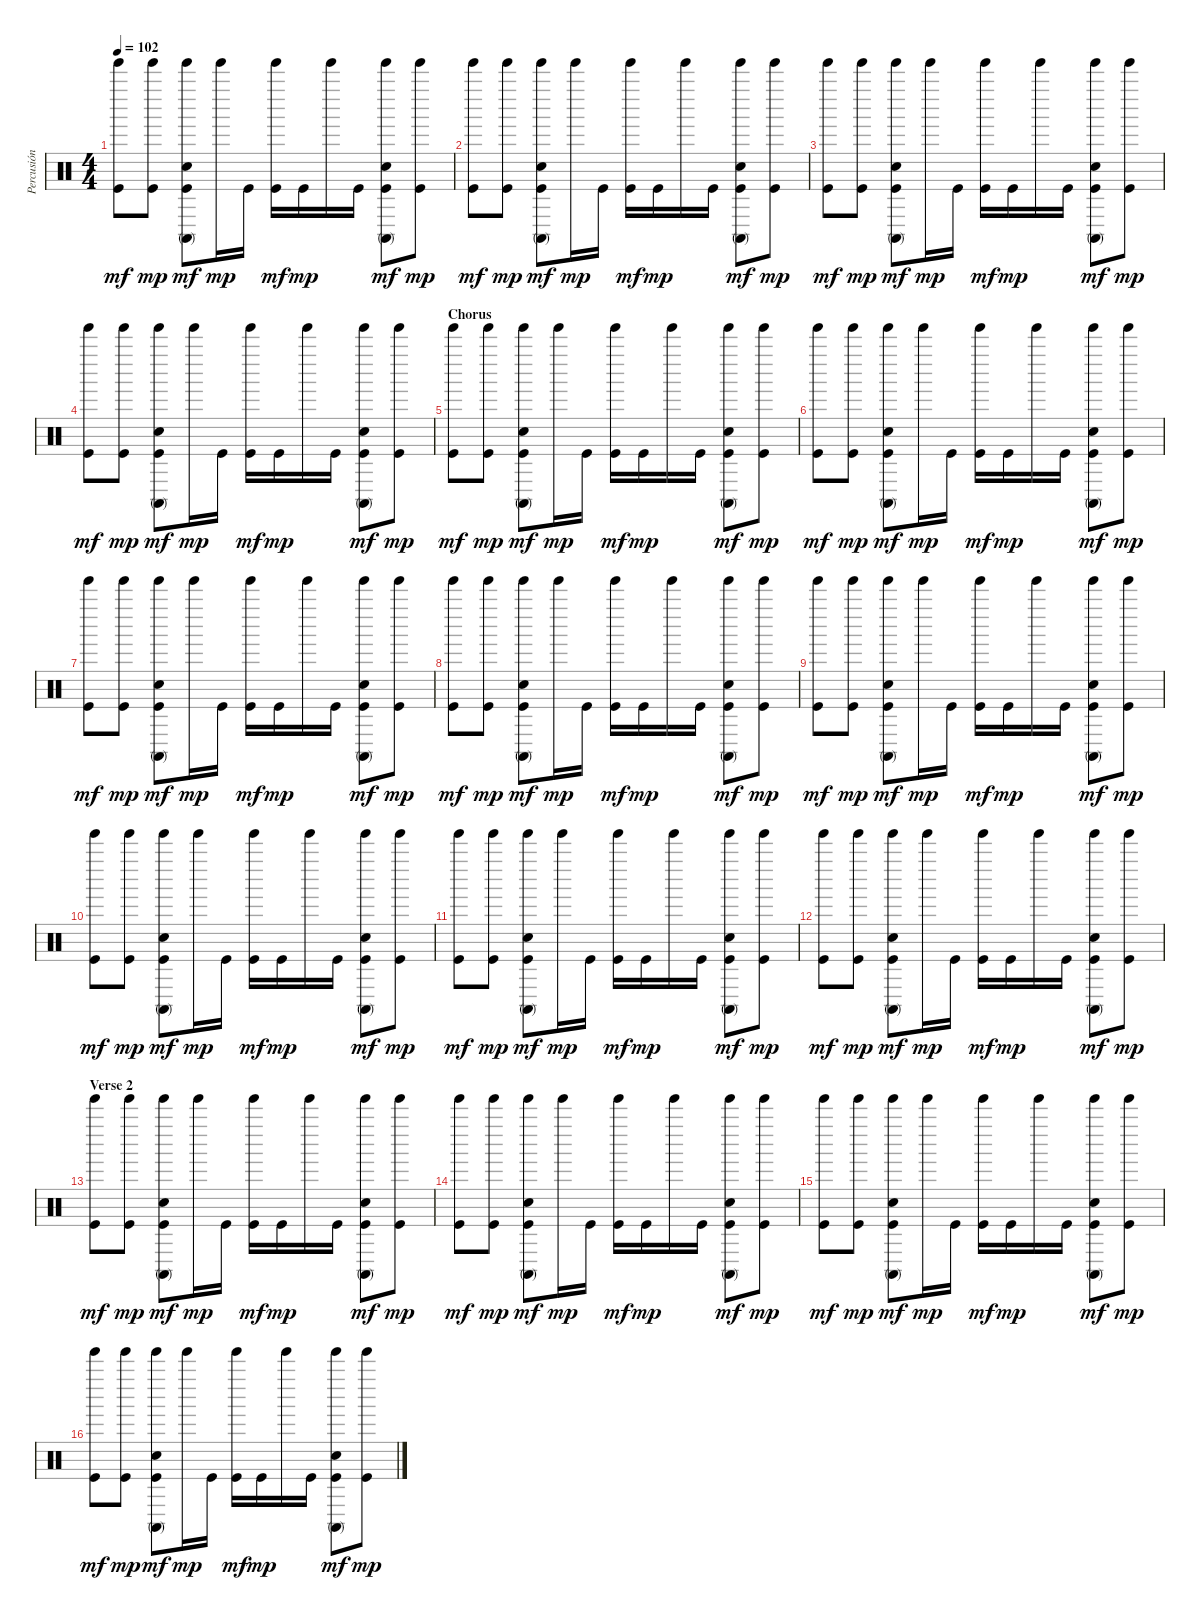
\track ("Percusión" "Percusión") {instrument percussion}
\staff {score}
\articulation defaults
\ts (4 4)
\tempo 102
\clef neutral
\ks c
("Kick (hit)" "Tinkle Bell (hit)").8{dy mf} ("Kick (hit)" "Tinkle Bell (hit)").8{dy mp} ("Kick (hit)" "Snare (hit) 2" "Conga high (mute)" "Tinkle Bell (hit)").8{dy mf} "Tinkle Bell (hit)".16{dy mp} "Kick (hit)".16 ("Kick (hit)" "Tinkle Bell (hit)").16{dy mf} "Kick (hit)".16{dy mp} "Tinkle Bell (hit)".16 "Kick (hit)".16 ("Kick (hit)" "Snare (hit) 2" "Conga high (mute)" "Tinkle Bell (hit)").8{dy mf} ("Kick (hit)" "Tinkle Bell (hit)").8{dy mp} |
("Kick (hit)" "Tinkle Bell (hit)").8{dy mf} ("Kick (hit)" "Tinkle Bell (hit)").8{dy mp} ("Kick (hit)" "Snare (hit) 2" "Conga high (mute)" "Tinkle Bell (hit)").8{dy mf} "Tinkle Bell (hit)".16{dy mp} "Kick (hit)".16 ("Kick (hit)" "Tinkle Bell (hit)").16{dy mf} "Kick (hit)".16{dy mp} "Tinkle Bell (hit)".16 "Kick (hit)".16 ("Kick (hit)" "Snare (hit) 2" "Conga high (mute)" "Tinkle Bell (hit)").8{dy mf} ("Kick (hit)" "Tinkle Bell (hit)").8{dy mp} |
("Kick (hit)" "Tinkle Bell (hit)").8{dy mf} ("Kick (hit)" "Tinkle Bell (hit)").8{dy mp} ("Kick (hit)" "Snare (hit) 2" "Conga high (mute)" "Tinkle Bell (hit)").8{dy mf} "Tinkle Bell (hit)".16{dy mp} "Kick (hit)".16 ("Kick (hit)" "Tinkle Bell (hit)").16{dy mf} "Kick (hit)".16{dy mp} "Tinkle Bell (hit)".16 "Kick (hit)".16 ("Kick (hit)" "Snare (hit) 2" "Conga high (mute)" "Tinkle Bell (hit)").8{dy mf} ("Kick (hit)" "Tinkle Bell (hit)").8{dy mp} |
("Kick (hit)" "Tinkle Bell (hit)").8{dy mf} ("Kick (hit)" "Tinkle Bell (hit)").8{dy mp} ("Kick (hit)" "Snare (hit) 2" "Conga high (mute)" "Tinkle Bell (hit)").8{dy mf} "Tinkle Bell (hit)".16{dy mp} "Kick (hit)".16 ("Kick (hit)" "Tinkle Bell (hit)").16{dy mf} "Kick (hit)".16{dy mp} "Tinkle Bell (hit)".16 "Kick (hit)".16 ("Kick (hit)" "Snare (hit) 2" "Conga high (mute)" "Tinkle Bell (hit)").8{dy mf} ("Kick (hit)" "Tinkle Bell (hit)").8{dy mp} |
\section ("" "Chorus")
("Kick (hit)" "Tinkle Bell (hit)").8{dy mf} ("Kick (hit)" "Tinkle Bell (hit)").8{dy mp} ("Kick (hit)" "Snare (hit) 2" "Conga high (mute)" "Tinkle Bell (hit)").8{dy mf} "Tinkle Bell (hit)".16{dy mp} "Kick (hit)".16 ("Kick (hit)" "Tinkle Bell (hit)").16{dy mf} "Kick (hit)".16{dy mp} "Tinkle Bell (hit)".16 "Kick (hit)".16 ("Kick (hit)" "Snare (hit) 2" "Conga high (mute)" "Tinkle Bell (hit)").8{dy mf} ("Kick (hit)" "Tinkle Bell (hit)").8{dy mp} |
("Kick (hit)" "Tinkle Bell (hit)").8{dy mf} ("Kick (hit)" "Tinkle Bell (hit)").8{dy mp} ("Kick (hit)" "Snare (hit) 2" "Conga high (mute)" "Tinkle Bell (hit)").8{dy mf} "Tinkle Bell (hit)".16{dy mp} "Kick (hit)".16 ("Kick (hit)" "Tinkle Bell (hit)").16{dy mf} "Kick (hit)".16{dy mp} "Tinkle Bell (hit)".16 "Kick (hit)".16 ("Kick (hit)" "Snare (hit) 2" "Conga high (mute)" "Tinkle Bell (hit)").8{dy mf} ("Kick (hit)" "Tinkle Bell (hit)").8{dy mp} |
("Kick (hit)" "Tinkle Bell (hit)").8{dy mf} ("Kick (hit)" "Tinkle Bell (hit)").8{dy mp} ("Kick (hit)" "Snare (hit) 2" "Conga high (mute)" "Tinkle Bell (hit)").8{dy mf} "Tinkle Bell (hit)".16{dy mp} "Kick (hit)".16 ("Kick (hit)" "Tinkle Bell (hit)").16{dy mf} "Kick (hit)".16{dy mp} "Tinkle Bell (hit)".16 "Kick (hit)".16 ("Kick (hit)" "Snare (hit) 2" "Conga high (mute)" "Tinkle Bell (hit)").8{dy mf} ("Kick (hit)" "Tinkle Bell (hit)").8{dy mp} |
("Kick (hit)" "Tinkle Bell (hit)").8{dy mf} ("Kick (hit)" "Tinkle Bell (hit)").8{dy mp} ("Kick (hit)" "Snare (hit) 2" "Conga high (mute)" "Tinkle Bell (hit)").8{dy mf} "Tinkle Bell (hit)".16{dy mp} "Kick (hit)".16 ("Kick (hit)" "Tinkle Bell (hit)").16{dy mf} "Kick (hit)".16{dy mp} "Tinkle Bell (hit)".16 "Kick (hit)".16 ("Kick (hit)" "Snare (hit) 2" "Conga high (mute)" "Tinkle Bell (hit)").8{dy mf} ("Kick (hit)" "Tinkle Bell (hit)").8{dy mp} |
("Kick (hit)" "Tinkle Bell (hit)").8{dy mf} ("Kick (hit)" "Tinkle Bell (hit)").8{dy mp} ("Kick (hit)" "Snare (hit) 2" "Conga high (mute)" "Tinkle Bell (hit)").8{dy mf} "Tinkle Bell (hit)".16{dy mp} "Kick (hit)".16 ("Kick (hit)" "Tinkle Bell (hit)").16{dy mf} "Kick (hit)".16{dy mp} "Tinkle Bell (hit)".16 "Kick (hit)".16 ("Kick (hit)" "Snare (hit) 2" "Conga high (mute)" "Tinkle Bell (hit)").8{dy mf} ("Kick (hit)" "Tinkle Bell (hit)").8{dy mp} |
("Kick (hit)" "Tinkle Bell (hit)").8{dy mf} ("Kick (hit)" "Tinkle Bell (hit)").8{dy mp} ("Kick (hit)" "Snare (hit) 2" "Conga high (mute)" "Tinkle Bell (hit)").8{dy mf} "Tinkle Bell (hit)".16{dy mp} "Kick (hit)".16 ("Kick (hit)" "Tinkle Bell (hit)").16{dy mf} "Kick (hit)".16{dy mp} "Tinkle Bell (hit)".16 "Kick (hit)".16 ("Kick (hit)" "Snare (hit) 2" "Conga high (mute)" "Tinkle Bell (hit)").8{dy mf} ("Kick (hit)" "Tinkle Bell (hit)").8{dy mp} |
("Kick (hit)" "Tinkle Bell (hit)").8{dy mf} ("Kick (hit)" "Tinkle Bell (hit)").8{dy mp} ("Kick (hit)" "Snare (hit) 2" "Conga high (mute)" "Tinkle Bell (hit)").8{dy mf} "Tinkle Bell (hit)".16{dy mp} "Kick (hit)".16 ("Kick (hit)" "Tinkle Bell (hit)").16{dy mf} "Kick (hit)".16{dy mp} "Tinkle Bell (hit)".16 "Kick (hit)".16 ("Kick (hit)" "Snare (hit) 2" "Conga high (mute)" "Tinkle Bell (hit)").8{dy mf} ("Kick (hit)" "Tinkle Bell (hit)").8{dy mp} |
("Kick (hit)" "Tinkle Bell (hit)").8{dy mf} ("Kick (hit)" "Tinkle Bell (hit)").8{dy mp} ("Kick (hit)" "Snare (hit) 2" "Conga high (mute)" "Tinkle Bell (hit)").8{dy mf} "Tinkle Bell (hit)".16{dy mp} "Kick (hit)".16 ("Kick (hit)" "Tinkle Bell (hit)").16{dy mf} "Kick (hit)".16{dy mp} "Tinkle Bell (hit)".16 "Kick (hit)".16 ("Kick (hit)" "Snare (hit) 2" "Conga high (mute)" "Tinkle Bell (hit)").8{dy mf} ("Kick (hit)" "Tinkle Bell (hit)").8{dy mp} |
\section ("" "Verse 2")
("Kick (hit)" "Tinkle Bell (hit)").8{dy mf} ("Kick (hit)" "Tinkle Bell (hit)").8{dy mp} ("Kick (hit)" "Snare (hit) 2" "Conga high (mute)" "Tinkle Bell (hit)").8{dy mf} "Tinkle Bell (hit)".16{dy mp} "Kick (hit)".16 ("Kick (hit)" "Tinkle Bell (hit)").16{dy mf} "Kick (hit)".16{dy mp} "Tinkle Bell (hit)".16 "Kick (hit)".16 ("Kick (hit)" "Snare (hit) 2" "Conga high (mute)" "Tinkle Bell (hit)").8{dy mf} ("Kick (hit)" "Tinkle Bell (hit)").8{dy mp} |
("Kick (hit)" "Tinkle Bell (hit)").8{dy mf} ("Kick (hit)" "Tinkle Bell (hit)").8{dy mp} ("Kick (hit)" "Snare (hit) 2" "Conga high (mute)" "Tinkle Bell (hit)").8{dy mf} "Tinkle Bell (hit)".16{dy mp} "Kick (hit)".16 ("Kick (hit)" "Tinkle Bell (hit)").16{dy mf} "Kick (hit)".16{dy mp} "Tinkle Bell (hit)".16 "Kick (hit)".16 ("Kick (hit)" "Snare (hit) 2" "Conga high (mute)" "Tinkle Bell (hit)").8{dy mf} ("Kick (hit)" "Tinkle Bell (hit)").8{dy mp} |
("Kick (hit)" "Tinkle Bell (hit)").8{dy mf} ("Kick (hit)" "Tinkle Bell (hit)").8{dy mp} ("Kick (hit)" "Snare (hit) 2" "Conga high (mute)" "Tinkle Bell (hit)").8{dy mf} "Tinkle Bell (hit)".16{dy mp} "Kick (hit)".16 ("Kick (hit)" "Tinkle Bell (hit)").16{dy mf} "Kick (hit)".16{dy mp} "Tinkle Bell (hit)".16 "Kick (hit)".16 ("Kick (hit)" "Snare (hit) 2" "Conga high (mute)" "Tinkle Bell (hit)").8{dy mf} ("Kick (hit)" "Tinkle Bell (hit)").8{dy mp} |
("Kick (hit)" "Tinkle Bell (hit)").8{dy mf} ("Kick (hit)" "Tinkle Bell (hit)").8{dy mp} ("Kick (hit)" "Snare (hit) 2" "Conga high (mute)" "Tinkle Bell (hit)").8{dy mf} "Tinkle Bell (hit)".16{dy mp} "Kick (hit)".16 ("Kick (hit)" "Tinkle Bell (hit)").16{dy mf} "Kick (hit)".16{dy mp} "Tinkle Bell (hit)".16 "Kick (hit)".16 ("Kick (hit)" "Snare (hit) 2" "Conga high (mute)" "Tinkle Bell (hit)").8{dy mf} ("Kick (hit)" "Tinkle Bell (hit)").8{dy mp}
